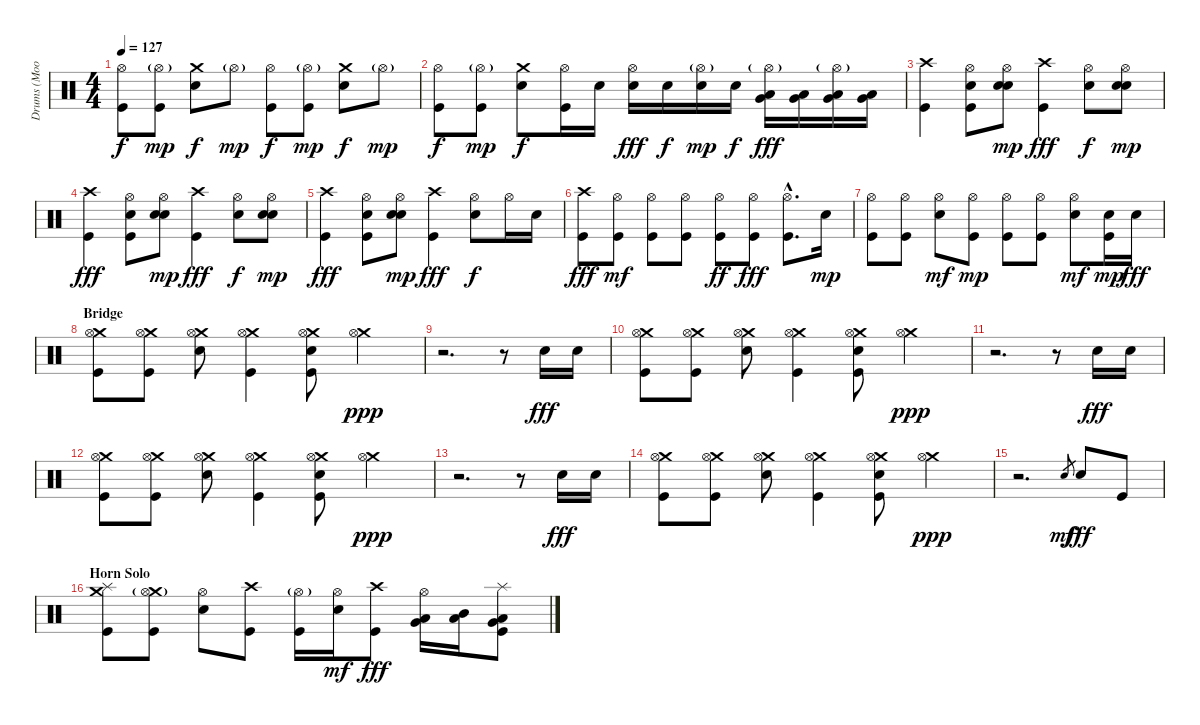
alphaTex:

\track ("Drums (Moon)" "Drums (Moo") {instrument percussion}
\staff {score}
\articulation defaults
\ts (4 4)
\tempo 127
\clef neutral
\ks c
("Hi-Hat (open)" "Kick (hit)").8{dy f} ("Hi-Hat (open)"{g} "Kick (hit)").8{dy mp} ("Crash medium (hit)" "Electric Snare (hit)").8{dy f} "Hi-Hat (open)"{g}.8{dy mp} ("Hi-Hat (open)" "Kick (hit)").8{dy f} ("Hi-Hat (open)"{g} "Kick (hit)").8{dy mp} ("Crash medium (hit)" "Electric Snare (hit)").8{dy f} "Hi-Hat (open)"{g}.8{dy mp} |
("Hi-Hat (open)" "Kick (hit)").8{dy f} ("Hi-Hat (open)"{g} "Kick (hit)").8{dy mp} ("Crash medium (hit)" "Electric Snare (hit)").8{dy f} ("Hi-Hat (open)" "Kick (hit)").16 "Electric Snare (hit)".16 ("Hi-Hat (open)" "Electric Snare (hit)").16{dy fff} "Electric Snare (hit)".16{dy f} ("Hi-Hat (open)"{g} "Electric Snare (hit)").16{dy mp} "Electric Snare (hit)".16{dy f} ("Hi-Hat (open)"{g} "Low Tom (hit)" "Very Low Tom (hit)").16{dy fff} ("Low Tom (hit)" "Very Low Tom (hit)").16 ("Hi-Hat (open)"{g} "Low Tom (hit)" "Very Low Tom (hit)").16 ("Low Tom (hit)" "Very Low Tom (hit)").16 |
("Crash high (hit)" "Kick (hit)").4 ("Hi-Hat (open)" "Electric Snare (hit)" "Kick (hit)").8 ("Hi-Hat (open)" "Electric Snare (hit)" "Snare (hit) 2").8{dy mp} ("Crash high (hit)" "Kick (hit)").4{dy fff} ("Hi-Hat (open)" "Electric Snare (hit)").8{dy f} ("Hi-Hat (open)" "Electric Snare (hit)" "Snare (hit) 2").8{dy mp} |
("Crash high (hit)" "Kick (hit)").4{dy fff} ("Hi-Hat (open)" "Electric Snare (hit)" "Kick (hit)").8 ("Hi-Hat (open)" "Electric Snare (hit)" "Snare (hit) 2").8{dy mp} ("Crash high (hit)" "Kick (hit)").4{dy fff} ("Hi-Hat (open)" "Electric Snare (hit)").8{dy f} ("Hi-Hat (open)" "Electric Snare (hit)" "Snare (hit) 2").8{dy mp} |
("Crash high (hit)" "Kick (hit)").4{dy fff} ("Hi-Hat (open)" "Electric Snare (hit)" "Kick (hit)").8 ("Hi-Hat (open)" "Electric Snare (hit)" "Snare (hit) 2").8{dy mp} ("Crash high (hit)" "Kick (hit)").4{dy fff} ("Hi-Hat (open)" "Electric Snare (hit)").8{dy f} "Hi-Hat (open)".16 "Electric Snare (hit)".16 |
("Crash high (hit)" "Kick (hit)").8{dy fff} ("Hi-Hat (open)" "Kick (hit)").8{dy mf} ("Hi-Hat (open)" "Kick (hit)").8 ("Hi-Hat (open)" "Kick (hit)").8 ("Hi-Hat (open)" "Kick (hit)").8{dy ff} ("Hi-Hat (open)" "Kick (hit)").8{dy fff} ("Hi-Hat (open)"{hac} "Kick (hit)"{hac}).8{d} "Electric Snare (hit)".16{dy mp} |
("Hi-Hat (open)" "Kick (hit)").8 ("Hi-Hat (open)" "Kick (hit)").8 ("Hi-Hat (open)" "Electric Snare (hit)").8{dy mf} ("Hi-Hat (open)" "Kick (hit)").8{dy mp} ("Hi-Hat (open)" "Kick (hit)").8 ("Hi-Hat (open)" "Kick (hit)").8 ("Hi-Hat (open)" "Electric Snare (hit)").8{dy mf} ("Electric Snare (hit)" "Kick (hit)").16{dy mp} "Electric Snare (hit)".16{dy fff} |
\section ("" "Bridge")
("Crash medium (hit)" "Hi-Hat (open)" "Kick (hit)").8 ("Crash medium (hit)" "Hi-Hat (open)" "Kick (hit)").8 ("Crash medium (hit)" "Hi-Hat (open)" "Electric Snare (hit)").8 ("Crash medium (hit)" "Hi-Hat (open)" "Kick (hit)").4 ("Crash medium (hit)" "Hi-Hat (open)" "Electric Snare (hit)" "Kick (hit)").8 ("Crash medium (hit)" "Hi-Hat (open)").4{dy ppp} |
r.2{d} r.8 "Electric Snare (hit)".16{dy fff} "Electric Snare (hit)".16 |
("Crash medium (hit)" "Hi-Hat (open)" "Kick (hit)").8 ("Crash medium (hit)" "Hi-Hat (open)" "Kick (hit)").8 ("Crash medium (hit)" "Hi-Hat (open)" "Electric Snare (hit)").8 ("Crash medium (hit)" "Hi-Hat (open)" "Kick (hit)").4 ("Crash medium (hit)" "Hi-Hat (open)" "Electric Snare (hit)" "Kick (hit)").8 ("Crash medium (hit)" "Hi-Hat (open)").4{dy ppp} |
r.2{d} r.8 "Electric Snare (hit)".16{dy fff} "Electric Snare (hit)".16 |
("Crash medium (hit)" "Hi-Hat (open)" "Kick (hit)").8 ("Crash medium (hit)" "Hi-Hat (open)" "Kick (hit)").8 ("Crash medium (hit)" "Hi-Hat (open)" "Electric Snare (hit)").8 ("Crash medium (hit)" "Hi-Hat (open)" "Kick (hit)").4 ("Crash medium (hit)" "Hi-Hat (open)" "Electric Snare (hit)" "Kick (hit)").8 ("Crash medium (hit)" "Hi-Hat (open)").4{dy ppp} |
r.2{d} r.8 "Electric Snare (hit)".16{dy fff} "Electric Snare (hit)".16 |
("Crash medium (hit)" "Hi-Hat (open)" "Kick (hit)").8 ("Crash medium (hit)" "Hi-Hat (open)" "Kick (hit)").8 ("Crash medium (hit)" "Hi-Hat (open)" "Electric Snare (hit)").8 ("Crash medium (hit)" "Hi-Hat (open)" "Kick (hit)").4 ("Crash medium (hit)" "Hi-Hat (open)" "Electric Snare (hit)" "Kick (hit)").8 ("Crash medium (hit)" "Hi-Hat (open)").4{dy ppp} |
r.2{d} "Electric Snare (hit)".8{gr dy mf} "Electric Snare (hit)".8{dy fff volume 16} "Kick (hit)".8 |
\section ("" "Horn Solo")
("Crash medium (hit)" "Splash (hit)" "Kick (hit)").8 ("Crash medium (hit)" "Hi-Hat (open)"{g} "Kick (hit)").8 ("Hi-Hat (open)" "Electric Snare (hit)").8 ("Crash high (hit)" "Kick (hit)").8 ("Hi-Hat (open)"{g} "Kick (hit)").16 ("Hi-Hat (open)" "Electric Snare (hit)").16{dy mf} ("Crash high (hit)" "Kick (hit)").8{dy fff} ("Hi-Hat (open)" "Low Tom (hit)" "Very Low Tom (hit)").16 ("Mid Tom (hit)" "Low Tom (hit)").16 ("Splash (hit)" "Very Low Tom (hit)" "Low Floor Tom (hit)" "Kick (hit)").8
